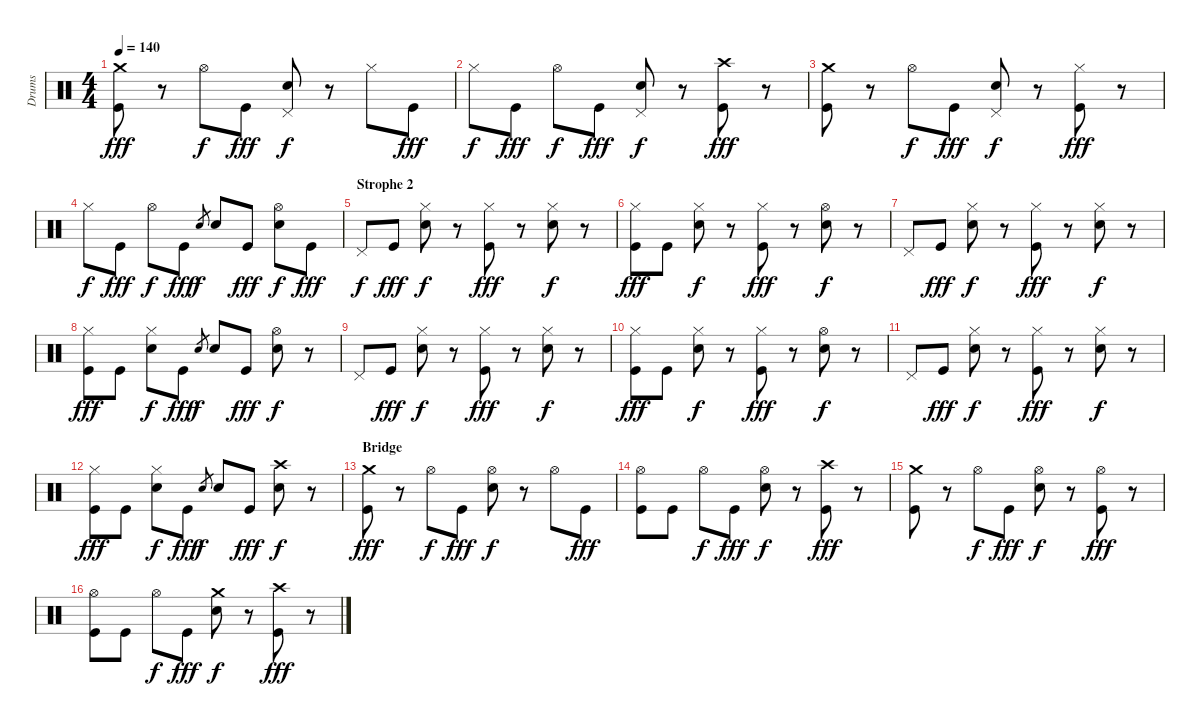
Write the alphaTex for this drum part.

\track ("Drums" "Drums") {instrument percussion}
\staff {score}
\articulation defaults
\ts (4 4)
\tempo 140
\clef neutral
\ks c
("Crash medium (hit)" "Kick (hit)").8{dy fff} r.8 "Hi-Hat (open)".8{dy f} "Kick (hit)".8{dy fff} ("Pedal Hi-Hat (hit)" "Electric Snare (hit)").8{dy f} r.8 "Hi-Hat (closed)".8 "Kick (hit)".8{dy fff} |
"Hi-Hat (closed)".8{dy f} "Kick (hit)".8{dy fff} "Hi-Hat (open)".8{dy f} "Kick (hit)".8{dy fff} ("Pedal Hi-Hat (hit)" "Electric Snare (hit)").8{dy f} r.8 ("Crash high (hit)" "Kick (hit)").8{dy fff} r.8 |
("Crash medium (hit)" "Kick (hit)").8 r.8 "Hi-Hat (open)".8{dy f} "Kick (hit)".8{dy fff} ("Pedal Hi-Hat (hit)" "Electric Snare (hit)").8{dy f} r.8 ("Hi-Hat (closed)" "Kick (hit)").8{dy fff} r.8 |
"Hi-Hat (closed)".8{dy f} "Kick (hit)".8{dy fff} "Hi-Hat (open)".8{dy f} "Kick (hit)".8{dy fff} "Electric Snare (hit)".8{gr dy f} "Electric Snare (hit)".8 "Kick (hit)".8{dy fff} ("Hi-Hat (open)" "Electric Snare (hit)").8{dy f} "Kick (hit)".8{dy fff} |
\section ("" "Strophe 2")
"Pedal Hi-Hat (hit)".8{dy f} "Kick (hit)".8{dy fff} ("Hi-Hat (closed)" "Electric Snare (hit)").8{dy f} r.8 ("Hi-Hat (closed)" "Kick (hit)").8{dy fff} r.8 ("Hi-Hat (closed)" "Electric Snare (hit)").8{dy f} r.8 |
("Hi-Hat (closed)" "Kick (hit)").8{dy fff} "Kick (hit)".8 ("Hi-Hat (closed)" "Electric Snare (hit)").8{dy f} r.8 ("Hi-Hat (closed)" "Kick (hit)").8{dy fff} r.8 ("Hi-Hat (open)" "Electric Snare (hit)").8{dy f} r.8 |
"Pedal Hi-Hat (hit)".8 "Kick (hit)".8{dy fff} ("Hi-Hat (closed)" "Electric Snare (hit)").8{dy f} r.8 ("Hi-Hat (closed)" "Kick (hit)").8{dy fff} r.8 ("Hi-Hat (closed)" "Electric Snare (hit)").8{dy f} r.8 |
("Hi-Hat (closed)" "Kick (hit)").8{dy fff} "Kick (hit)".8 ("Hi-Hat (closed)" "Electric Snare (hit)").8{dy f} "Kick (hit)".8{dy fff} "Electric Snare (hit)".8{gr dy f} "Electric Snare (hit)".8 "Kick (hit)".8{dy fff} ("Hi-Hat (open)" "Electric Snare (hit)").8{dy f} r.8 |
"Pedal Hi-Hat (hit)".8 "Kick (hit)".8{dy fff} ("Hi-Hat (closed)" "Electric Snare (hit)").8{dy f} r.8 ("Hi-Hat (closed)" "Kick (hit)").8{dy fff} r.8 ("Hi-Hat (closed)" "Electric Snare (hit)").8{dy f} r.8 |
("Hi-Hat (closed)" "Kick (hit)").8{dy fff} "Kick (hit)".8 ("Hi-Hat (closed)" "Electric Snare (hit)").8{dy f} r.8 ("Hi-Hat (closed)" "Kick (hit)").8{dy fff} r.8 ("Hi-Hat (open)" "Electric Snare (hit)").8{dy f} r.8 |
"Pedal Hi-Hat (hit)".8 "Kick (hit)".8{dy fff} ("Hi-Hat (closed)" "Electric Snare (hit)").8{dy f} r.8 ("Hi-Hat (closed)" "Kick (hit)").8{dy fff} r.8 ("Hi-Hat (closed)" "Electric Snare (hit)").8{dy f} r.8 |
("Hi-Hat (closed)" "Kick (hit)").8{dy fff} "Kick (hit)".8 ("Hi-Hat (closed)" "Electric Snare (hit)").8{dy f} "Kick (hit)".8{dy fff} "Electric Snare (hit)".8{gr dy f} "Electric Snare (hit)".8 "Kick (hit)".8{dy fff} ("Crash high (hit)" "Electric Snare (hit)").8{dy f} r.8 |
\section ("" "Bridge")
("Crash medium (hit)" "Kick (hit)").8{dy fff} r.8 "Hi-Hat (open)".8{dy f} "Kick (hit)".8{dy fff} ("Hi-Hat (open)" "Electric Snare (hit)").8{dy f} r.8 "Hi-Hat (open)".8 "Kick (hit)".8{dy fff} |
("Hi-Hat (open)" "Kick (hit)").8 "Kick (hit)".8 "Hi-Hat (open)".8{dy f} "Kick (hit)".8{dy fff} ("Hi-Hat (open)" "Electric Snare (hit)").8{dy f} r.8 ("Crash high (hit)" "Kick (hit)").8{dy fff} r.8 |
("Crash medium (hit)" "Kick (hit)").8 r.8 "Hi-Hat (open)".8{dy f} "Kick (hit)".8{dy fff} ("Hi-Hat (open)" "Electric Snare (hit)").8{dy f} r.8 ("Hi-Hat (open)" "Kick (hit)").8{dy fff} r.8 |
("Hi-Hat (open)" "Kick (hit)").8 "Kick (hit)".8 "Hi-Hat (open)".8{dy f} "Kick (hit)".8{dy fff} ("Crash medium (hit)" "Electric Snare (hit)").8{dy f} r.8 ("Crash high (hit)" "Kick (hit)").8{dy fff} r.8
